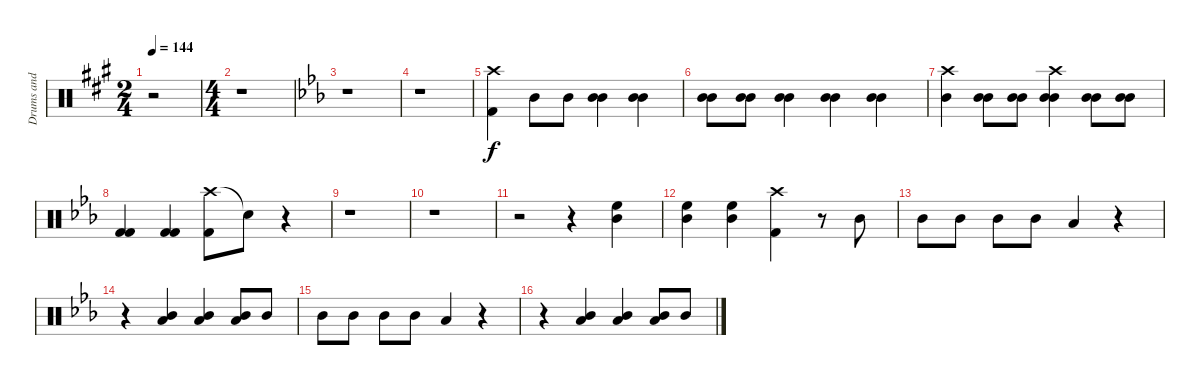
\track ("Drums and percussion" "Drums and ") {instrument percussion}
\staff {score}
\articulation defaults
\ts (2 4)
\tempo 144
\clef neutral
\ks a
r.2{dy f} |
\ts (4 4)
r.1 |
\ks eb
r.1 |
r.1 |
("Crash high (hit)" "Kick (hit) 2").4 "Mid Tom (hit)".8 "Mid Tom (hit)".8 ("Mid Tom (hit)" "Mid Tom (hit)").4 ("Mid Tom (hit)" "Mid Tom (hit)").4 |
("Mid Tom (hit)" "Mid Tom (hit)").8 ("Mid Tom (hit)" "Mid Tom (hit)").8 ("Mid Tom (hit)" "Mid Tom (hit)").4 ("Mid Tom (hit)" "Mid Tom (hit)").4 ("Mid Tom (hit)" "Mid Tom (hit)").4 |
("Crash high (hit)" "Mid Tom (hit)").4 ("Mid Tom (hit)" "Mid Tom (hit)").8 ("Mid Tom (hit)" "Mid Tom (hit)").8 ("Crash high (hit)" "Mid Tom (hit)" "Mid Tom (hit)").4 ("Mid Tom (hit)" "Mid Tom (hit)").8 ("Mid Tom (hit)" "Mid Tom (hit)").8 |
("Kick (hit) 2" "Kick (hit) 2").4 ("Kick (hit) 2" "Kick (hit) 2").4 ("Crash high (hit)" "Kick (hit) 2").8 "Snare (hit)"{t}.8 r.4 |
r.1 |
r.1 |
r.2 r.4 ("High Floor Tom (hit)" "Mid Tom (hit)").4 |
("High Floor Tom (hit)" "Mid Tom (hit)").4 ("High Floor Tom (hit)" "Mid Tom (hit)").4 ("Crash high (hit)" "Kick (hit) 2").4 r.8 "Mid Tom (hit)".8 |
"Mid Tom (hit)".8 "Mid Tom (hit)".8 "Mid Tom (hit)".8 "Mid Tom (hit)".8 "Low Tom (hit)".4 r.4 |
r.4 ("Mid Tom (hit)" "Low Tom (hit)").4 ("Mid Tom (hit)" "Low Tom (hit)").4 ("Mid Tom (hit)" "Low Tom (hit)").8 "Mid Tom (hit)".8 |
"Mid Tom (hit)".8 "Mid Tom (hit)".8 "Mid Tom (hit)".8 "Mid Tom (hit)".8 "Low Tom (hit)".4 r.4 |
r.4 ("Mid Tom (hit)" "Low Tom (hit)").4 ("Mid Tom (hit)" "Low Tom (hit)").4 ("Mid Tom (hit)" "Low Tom (hit)").8 "Mid Tom (hit)".8
